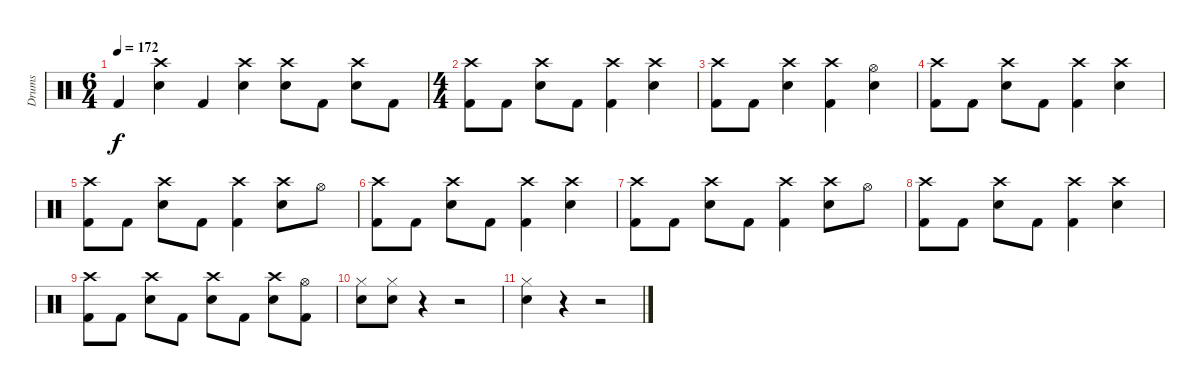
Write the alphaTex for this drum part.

\track ("Drums" "Drums") {instrument percussion}
\staff {score}
\articulation defaults
\ts (6 4)
\tempo 172
\clef neutral
\ks c "Kick (hit) 2".4{dy f}
("Crash high (hit)" "Electric Snare (hit)").4 "Kick (hit) 2".4 ("Crash high (hit)" "Electric Snare (hit)").4 ("Crash high (hit)" "Electric Snare (hit)").8 "Kick (hit) 2".8 ("Crash high (hit)" "Electric Snare (hit)").8 "Kick (hit) 2".8 |
\ts (4 4)
("Crash high (hit)" "Kick (hit) 2").8 "Kick (hit) 2".8 ("Crash high (hit)" "Electric Snare (hit)").8 "Kick (hit) 2".8 ("Crash high (hit)" "Kick (hit) 2").4 ("Crash high (hit)" "Electric Snare (hit)").4 |
("Crash high (hit)" "Kick (hit) 2").8 "Kick (hit) 2".8 ("Crash high (hit)" "Electric Snare (hit)").4 ("Crash high (hit)" "Kick (hit) 2").4 ("Hi-Hat (open)" "Electric Snare (hit)").4 |
("Crash high (hit)" "Kick (hit) 2").8 "Kick (hit) 2".8 ("Crash high (hit)" "Electric Snare (hit)").8 "Kick (hit) 2".8 ("Crash high (hit)" "Kick (hit) 2").4 ("Crash high (hit)" "Electric Snare (hit)").4 |
("Crash high (hit)" "Kick (hit) 2").8 "Kick (hit) 2".8 ("Crash high (hit)" "Electric Snare (hit)").8 "Kick (hit) 2".8 ("Crash high (hit)" "Kick (hit) 2").4 ("Crash high (hit)" "Electric Snare (hit)").8 "Hi-Hat (open)".8 |
("Crash high (hit)" "Kick (hit) 2").8 "Kick (hit) 2".8 ("Crash high (hit)" "Electric Snare (hit)").8 "Kick (hit) 2".8 ("Crash high (hit)" "Kick (hit) 2").4 ("Crash high (hit)" "Electric Snare (hit)").4 |
("Crash high (hit)" "Kick (hit) 2").8 "Kick (hit) 2".8 ("Crash high (hit)" "Electric Snare (hit)").8 "Kick (hit) 2".8 ("Crash high (hit)" "Kick (hit) 2").4 ("Crash high (hit)" "Electric Snare (hit)").8 "Hi-Hat (open)".8 |
("Crash high (hit)" "Kick (hit) 2").8 "Kick (hit) 2".8 ("Crash high (hit)" "Electric Snare (hit)").8 "Kick (hit) 2".8 ("Crash high (hit)" "Kick (hit) 2").4 ("Crash high (hit)" "Electric Snare (hit)").4 |
("Crash high (hit)" "Kick (hit) 2").8 "Kick (hit) 2".8 ("Crash high (hit)" "Electric Snare (hit)").8 "Kick (hit) 2".8 ("Crash high (hit)" "Electric Snare (hit)").8 "Kick (hit) 2".8 ("Crash high (hit)" "Electric Snare (hit)").8 ("Hi-Hat (open)" "Kick (hit) 2").8 |
("Hi-Hat (closed)" "Electric Snare (hit)").8 ("Hi-Hat (closed)" "Electric Snare (hit)").8 r.4 r.2 |
("Hi-Hat (closed)" "Electric Snare (hit)").4 r.4 r.2
